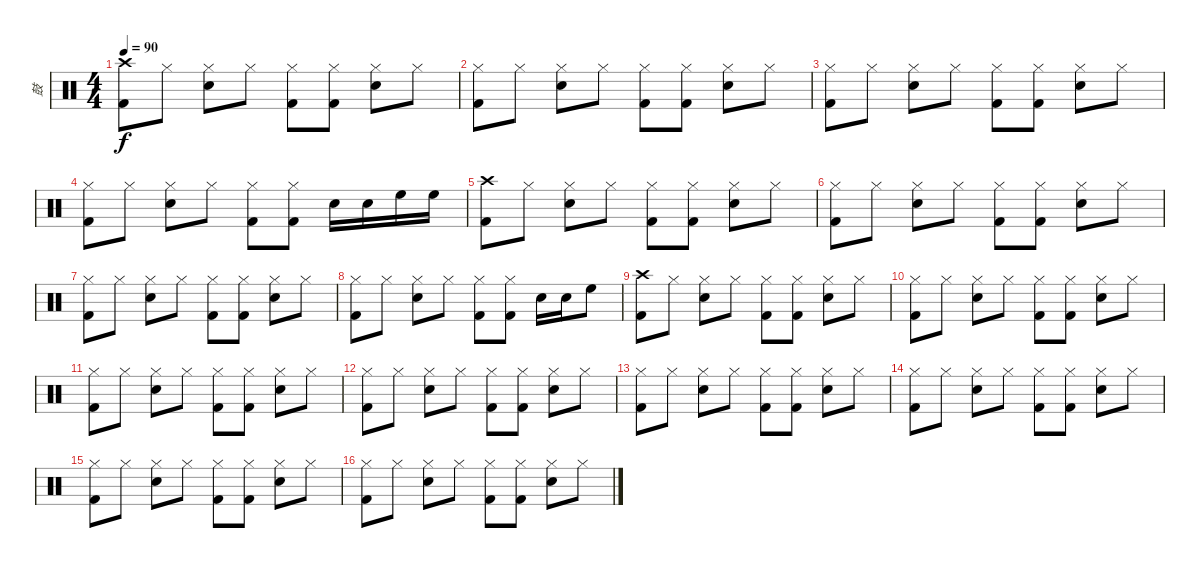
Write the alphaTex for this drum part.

\track ("鼓" "鼓") {instrument percussion}
\staff {score}
\articulation defaults
\ts (4 4)
\tempo 90
\clef neutral
\ks c
("Crash high (hit)" "Kick (hit) 2").8{dy f} "Hi-Hat (closed)".8 ("Hi-Hat (closed)" "Snare (hit) 2").8 "Hi-Hat (closed)".8 ("Hi-Hat (closed)" "Kick (hit) 2").8 ("Hi-Hat (closed)" "Kick (hit) 2").8 ("Hi-Hat (closed)" "Snare (hit) 2").8 "Hi-Hat (closed)".8 |
("Hi-Hat (closed)" "Kick (hit) 2").8 "Hi-Hat (closed)".8 ("Hi-Hat (closed)" "Snare (hit) 2").8 "Hi-Hat (closed)".8 ("Hi-Hat (closed)" "Kick (hit) 2").8 ("Hi-Hat (closed)" "Kick (hit) 2").8 ("Hi-Hat (closed)" "Snare (hit) 2").8 "Hi-Hat (closed)".8 |
("Hi-Hat (closed)" "Kick (hit) 2").8 "Hi-Hat (closed)".8 ("Hi-Hat (closed)" "Snare (hit) 2").8 "Hi-Hat (closed)".8 ("Hi-Hat (closed)" "Kick (hit) 2").8 ("Hi-Hat (closed)" "Kick (hit) 2").8 ("Hi-Hat (closed)" "Snare (hit) 2").8 "Hi-Hat (closed)".8 |
("Hi-Hat (closed)" "Kick (hit) 2").8 "Hi-Hat (closed)".8 ("Hi-Hat (closed)" "Snare (hit) 2").8 "Hi-Hat (closed)".8 ("Hi-Hat (closed)" "Kick (hit) 2").8 ("Hi-Hat (closed)" "Kick (hit) 2").8 "Snare (hit) 2".16 "Snare (hit) 2".16 "High Floor Tom (hit)".16 "High Floor Tom (hit)".16 |
("Crash high (hit)" "Kick (hit) 2").8 "Hi-Hat (closed)".8 ("Hi-Hat (closed)" "Snare (hit) 2").8 "Hi-Hat (closed)".8 ("Hi-Hat (closed)" "Kick (hit) 2").8 ("Hi-Hat (closed)" "Kick (hit) 2").8 ("Hi-Hat (closed)" "Snare (hit) 2").8 "Hi-Hat (closed)".8 |
("Hi-Hat (closed)" "Kick (hit) 2").8 "Hi-Hat (closed)".8 ("Hi-Hat (closed)" "Snare (hit) 2").8 "Hi-Hat (closed)".8 ("Hi-Hat (closed)" "Kick (hit) 2").8 ("Hi-Hat (closed)" "Kick (hit) 2").8 ("Hi-Hat (closed)" "Snare (hit) 2").8 "Hi-Hat (closed)".8 |
("Hi-Hat (closed)" "Kick (hit) 2").8 "Hi-Hat (closed)".8 ("Hi-Hat (closed)" "Snare (hit) 2").8 "Hi-Hat (closed)".8 ("Hi-Hat (closed)" "Kick (hit) 2").8 ("Hi-Hat (closed)" "Kick (hit) 2").8 ("Hi-Hat (closed)" "Snare (hit) 2").8 "Hi-Hat (closed)".8 |
("Hi-Hat (closed)" "Kick (hit) 2").8 "Hi-Hat (closed)".8 ("Hi-Hat (closed)" "Snare (hit) 2").8 "Hi-Hat (closed)".8 ("Hi-Hat (closed)" "Kick (hit) 2").8 ("Hi-Hat (closed)" "Kick (hit) 2").8 "Snare (hit) 2".16 "Snare (hit) 2".16 "High Floor Tom (hit)".8 |
("Crash high (hit)" "Kick (hit) 2").8 "Hi-Hat (closed)".8 ("Hi-Hat (closed)" "Snare (hit) 2").8 "Hi-Hat (closed)".8 ("Hi-Hat (closed)" "Kick (hit) 2").8 ("Hi-Hat (closed)" "Kick (hit) 2").8 ("Hi-Hat (closed)" "Snare (hit) 2").8 "Hi-Hat (closed)".8 |
("Hi-Hat (closed)" "Kick (hit) 2").8 "Hi-Hat (closed)".8 ("Hi-Hat (closed)" "Snare (hit) 2").8 "Hi-Hat (closed)".8 ("Hi-Hat (closed)" "Kick (hit) 2").8 ("Hi-Hat (closed)" "Kick (hit) 2").8 ("Hi-Hat (closed)" "Snare (hit) 2").8 "Hi-Hat (closed)".8 |
("Hi-Hat (closed)" "Kick (hit) 2").8 "Hi-Hat (closed)".8 ("Hi-Hat (closed)" "Snare (hit) 2").8 "Hi-Hat (closed)".8 ("Hi-Hat (closed)" "Kick (hit) 2").8 ("Hi-Hat (closed)" "Kick (hit) 2").8 ("Hi-Hat (closed)" "Snare (hit) 2").8 "Hi-Hat (closed)".8 |
("Hi-Hat (closed)" "Kick (hit) 2").8 "Hi-Hat (closed)".8 ("Hi-Hat (closed)" "Snare (hit) 2").8 "Hi-Hat (closed)".8 ("Hi-Hat (closed)" "Kick (hit) 2").8 ("Hi-Hat (closed)" "Kick (hit) 2").8 ("Hi-Hat (closed)" "Snare (hit) 2").8 "Hi-Hat (closed)".8 |
("Hi-Hat (closed)" "Kick (hit) 2").8 "Hi-Hat (closed)".8 ("Hi-Hat (closed)" "Snare (hit) 2").8 "Hi-Hat (closed)".8 ("Hi-Hat (closed)" "Kick (hit) 2").8 ("Hi-Hat (closed)" "Kick (hit) 2").8 ("Hi-Hat (closed)" "Snare (hit) 2").8 "Hi-Hat (closed)".8 |
("Hi-Hat (closed)" "Kick (hit) 2").8 "Hi-Hat (closed)".8 ("Hi-Hat (closed)" "Snare (hit) 2").8 "Hi-Hat (closed)".8 ("Hi-Hat (closed)" "Kick (hit) 2").8 ("Hi-Hat (closed)" "Kick (hit) 2").8 ("Hi-Hat (closed)" "Snare (hit) 2").8 "Hi-Hat (closed)".8 |
("Hi-Hat (closed)" "Kick (hit) 2").8 "Hi-Hat (closed)".8 ("Hi-Hat (closed)" "Snare (hit) 2").8 "Hi-Hat (closed)".8 ("Hi-Hat (closed)" "Kick (hit) 2").8 ("Hi-Hat (closed)" "Kick (hit) 2").8 ("Hi-Hat (closed)" "Snare (hit) 2").8 "Hi-Hat (closed)".8 |
("Hi-Hat (closed)" "Kick (hit) 2").8 "Hi-Hat (closed)".8 ("Hi-Hat (closed)" "Snare (hit) 2").8 "Hi-Hat (closed)".8 ("Hi-Hat (closed)" "Kick (hit) 2").8 ("Hi-Hat (closed)" "Kick (hit) 2").8 ("Hi-Hat (closed)" "Snare (hit) 2").8 "Hi-Hat (closed)".8
